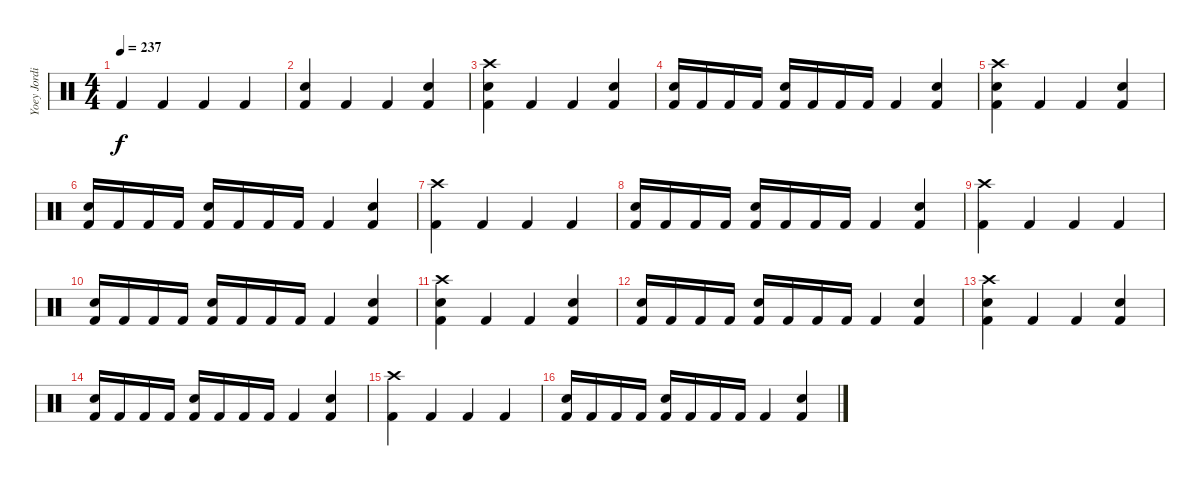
\track ("Yoey Jordison" "Yoey Jordi") {instrument percussion}
\staff {score}
\articulation defaults
\ts (4 4)
\tempo 237
\clef neutral
\ks c "Kick (hit) 2".4{dy f} "Kick (hit) 2".4 "Kick (hit) 2".4 "Kick (hit) 2".4
|
("Kick (hit) 2" "Snare (hit) 2").4 "Kick (hit) 2".4 "Kick (hit) 2".4 ("Kick (hit) 2" "Snare (hit) 2").4 |
("Crash high (hit)" "Kick (hit) 2" "Snare (hit) 2").4 "Kick (hit) 2".4 "Kick (hit) 2".4 ("Kick (hit) 2" "Snare (hit) 2").4 |
("Kick (hit) 2" "Snare (hit) 2").16 "Kick (hit) 2".16 "Kick (hit) 2".16 "Kick (hit) 2".16 ("Kick (hit) 2" "Snare (hit) 2").16 "Kick (hit) 2".16 "Kick (hit) 2".16 "Kick (hit) 2".16 "Kick (hit) 2".4 ("Kick (hit) 2" "Snare (hit) 2").4 |
("Crash high (hit)" "Kick (hit) 2" "Snare (hit) 2").4 "Kick (hit) 2".4 "Kick (hit) 2".4 ("Kick (hit) 2" "Snare (hit) 2").4 |
("Kick (hit) 2" "Snare (hit) 2").16 "Kick (hit) 2".16 "Kick (hit) 2".16 "Kick (hit) 2".16 ("Kick (hit) 2" "Snare (hit) 2").16 "Kick (hit) 2".16 "Kick (hit) 2".16 "Kick (hit) 2".16 "Kick (hit) 2".4 ("Kick (hit) 2" "Snare (hit) 2").4 |
("Crash high (hit)" "Kick (hit) 2").4 "Kick (hit) 2".4 "Kick (hit) 2".4 "Kick (hit) 2".4 |
("Kick (hit) 2" "Snare (hit) 2").16 "Kick (hit) 2".16 "Kick (hit) 2".16 "Kick (hit) 2".16 ("Kick (hit) 2" "Snare (hit) 2").16 "Kick (hit) 2".16 "Kick (hit) 2".16 "Kick (hit) 2".16 "Kick (hit) 2".4 ("Kick (hit) 2" "Snare (hit) 2").4 |
("Crash high (hit)" "Kick (hit) 2").4 "Kick (hit) 2".4 "Kick (hit) 2".4 "Kick (hit) 2".4 |
("Kick (hit) 2" "Snare (hit) 2").16 "Kick (hit) 2".16 "Kick (hit) 2".16 "Kick (hit) 2".16 ("Kick (hit) 2" "Snare (hit) 2").16 "Kick (hit) 2".16 "Kick (hit) 2".16 "Kick (hit) 2".16 "Kick (hit) 2".4 ("Kick (hit) 2" "Snare (hit) 2").4 |
("Crash high (hit)" "Kick (hit) 2" "Snare (hit) 2").4 "Kick (hit) 2".4 "Kick (hit) 2".4 ("Kick (hit) 2" "Snare (hit) 2").4 |
("Kick (hit) 2" "Snare (hit) 2").16 "Kick (hit) 2".16 "Kick (hit) 2".16 "Kick (hit) 2".16 ("Kick (hit) 2" "Snare (hit) 2").16 "Kick (hit) 2".16 "Kick (hit) 2".16 "Kick (hit) 2".16 "Kick (hit) 2".4 ("Kick (hit) 2" "Snare (hit) 2").4 |
("Crash high (hit)" "Kick (hit) 2" "Snare (hit) 2").4 "Kick (hit) 2".4 "Kick (hit) 2".4 ("Kick (hit) 2" "Snare (hit) 2").4 |
("Kick (hit) 2" "Snare (hit) 2").16 "Kick (hit) 2".16 "Kick (hit) 2".16 "Kick (hit) 2".16 ("Kick (hit) 2" "Snare (hit) 2").16 "Kick (hit) 2".16 "Kick (hit) 2".16 "Kick (hit) 2".16 "Kick (hit) 2".4 ("Kick (hit) 2" "Snare (hit) 2").4 |
("Crash high (hit)" "Kick (hit) 2").4 "Kick (hit) 2".4 "Kick (hit) 2".4 "Kick (hit) 2".4 |
("Kick (hit) 2" "Snare (hit) 2").16 "Kick (hit) 2".16 "Kick (hit) 2".16 "Kick (hit) 2".16 ("Kick (hit) 2" "Snare (hit) 2").16 "Kick (hit) 2".16 "Kick (hit) 2".16 "Kick (hit) 2".16 "Kick (hit) 2".4 ("Kick (hit) 2" "Snare (hit) 2").4
